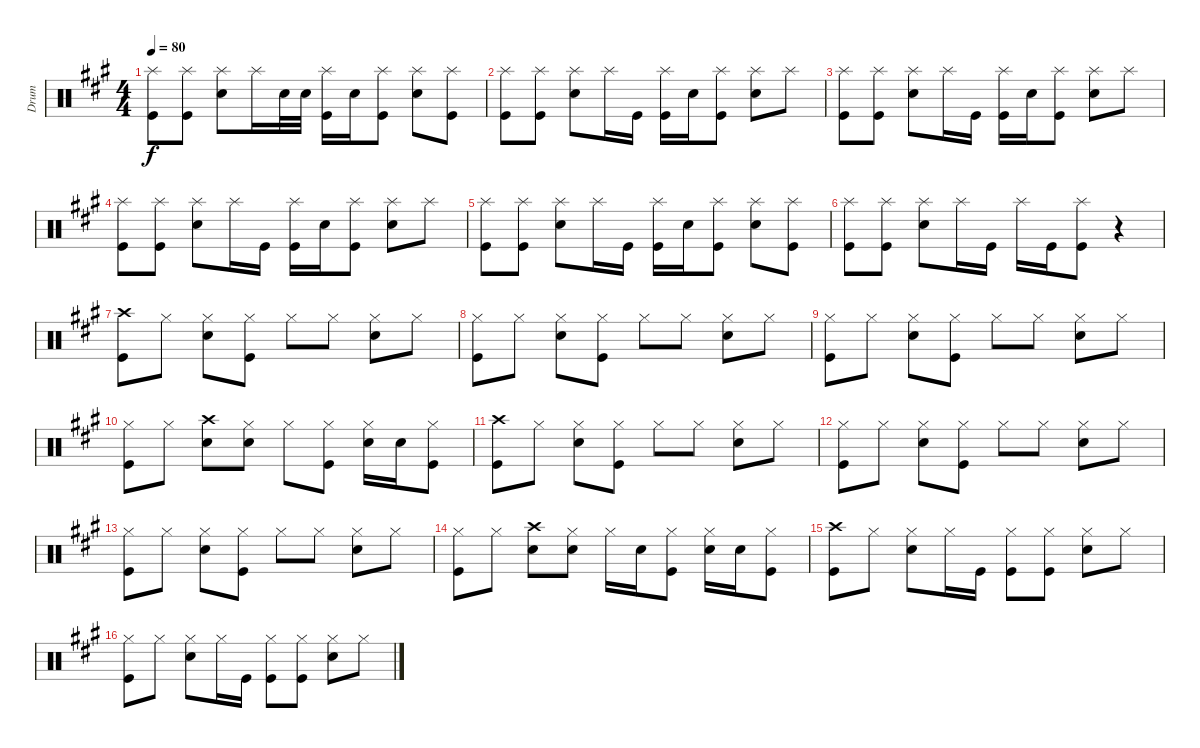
\track ("Drum" "Drum") {instrument percussion}
\staff {score}
\articulation defaults
\ts (4 4)
\tempo 80
\clef neutral
\ks a
("Splash (hit)" "Kick (hit)").8{dy f} ("Splash (hit)" "Kick (hit)").8 ("Splash (hit)" "Electric Snare (hit)").8 "Splash (hit)".16 "Electric Snare (hit)".32 "Electric Snare (hit)".32 ("Splash (hit)" "Kick (hit)").16 "Electric Snare (hit)".16 ("Splash (hit)" "Kick (hit)").8 ("Splash (hit)" "Electric Snare (hit)").8 ("Splash (hit)" "Kick (hit)").8 |
("Splash (hit)" "Kick (hit)").8 ("Splash (hit)" "Kick (hit)").8 ("Splash (hit)" "Electric Snare (hit)").8 "Splash (hit)".16 "Kick (hit)".16 ("Splash (hit)" "Kick (hit)").16 "Electric Snare (hit)".16 ("Splash (hit)" "Kick (hit)").8 ("Splash (hit)" "Electric Snare (hit)").8 "Splash (hit)".8 |
("Splash (hit)" "Kick (hit)").8 ("Splash (hit)" "Kick (hit)").8 ("Splash (hit)" "Electric Snare (hit)").8 "Splash (hit)".16 "Kick (hit)".16 ("Splash (hit)" "Kick (hit)").16 "Electric Snare (hit)".16 ("Splash (hit)" "Kick (hit)").8 ("Splash (hit)" "Electric Snare (hit)").8 "Splash (hit)".8 |
("Splash (hit)" "Kick (hit)").8 ("Splash (hit)" "Kick (hit)").8 ("Splash (hit)" "Electric Snare (hit)").8 "Splash (hit)".16 "Kick (hit)".16 ("Splash (hit)" "Kick (hit)").16 "Electric Snare (hit)".16 ("Splash (hit)" "Kick (hit)").8 ("Splash (hit)" "Electric Snare (hit)").8 "Splash (hit)".8 |
("Splash (hit)" "Kick (hit)").8 ("Splash (hit)" "Kick (hit)").8 ("Splash (hit)" "Electric Snare (hit)").8 "Splash (hit)".16 "Kick (hit)".16 ("Splash (hit)" "Kick (hit)").16 "Electric Snare (hit)".16 ("Splash (hit)" "Kick (hit)").8 ("Splash (hit)" "Electric Snare (hit)").8 ("Splash (hit)" "Kick (hit)").8 |
("Splash (hit)" "Kick (hit)").8 ("Splash (hit)" "Kick (hit)").8 ("Splash (hit)" "Electric Snare (hit)").8 "Splash (hit)".16 "Kick (hit)".16 "Splash (hit)".16 "Kick (hit)".16 ("Splash (hit)" "Kick (hit)").8 r.4 |
("Crash high (hit)" "Kick (hit)").8 "Hi-Hat (closed)".8 ("Hi-Hat (closed)" "Snare (hit) 2").8 ("Hi-Hat (closed)" "Kick (hit)").8 "Hi-Hat (closed)".8 "Hi-Hat (closed)".8 ("Hi-Hat (closed)" "Snare (hit) 2").8 "Hi-Hat (closed)".8 |
("Hi-Hat (closed)" "Kick (hit)").8 "Hi-Hat (closed)".8 ("Hi-Hat (closed)" "Snare (hit) 2").8 ("Hi-Hat (closed)" "Kick (hit)").8 "Hi-Hat (closed)".8 "Hi-Hat (closed)".8 ("Hi-Hat (closed)" "Snare (hit) 2").8 "Hi-Hat (closed)".8 |
("Hi-Hat (closed)" "Kick (hit)").8 "Hi-Hat (closed)".8 ("Hi-Hat (closed)" "Snare (hit) 2").8 ("Hi-Hat (closed)" "Kick (hit)").8 "Hi-Hat (closed)".8 "Hi-Hat (closed)".8 ("Hi-Hat (closed)" "Snare (hit) 2").8 "Hi-Hat (closed)".8 |
("Hi-Hat (closed)" "Kick (hit)").8 "Hi-Hat (closed)".8 ("Crash high (hit)" "Snare (hit) 2").8 ("Hi-Hat (closed)" "Electric Snare (hit)").8 "Hi-Hat (closed)".8 ("Hi-Hat (closed)" "Kick (hit)").8 ("Hi-Hat (closed)" "Electric Snare (hit)").16 "Electric Snare (hit)".16 ("Hi-Hat (closed)" "Kick (hit)").8 |
("Crash high (hit)" "Kick (hit)").8 "Hi-Hat (closed)".8 ("Hi-Hat (closed)" "Snare (hit) 2").8 ("Hi-Hat (closed)" "Kick (hit)").8 "Hi-Hat (closed)".8 "Hi-Hat (closed)".8 ("Hi-Hat (closed)" "Snare (hit) 2").8 "Hi-Hat (closed)".8 |
("Hi-Hat (closed)" "Kick (hit)").8 "Hi-Hat (closed)".8 ("Hi-Hat (closed)" "Snare (hit) 2").8 ("Hi-Hat (closed)" "Kick (hit)").8 "Hi-Hat (closed)".8 "Hi-Hat (closed)".8 ("Hi-Hat (closed)" "Snare (hit) 2").8 "Hi-Hat (closed)".8 |
("Hi-Hat (closed)" "Kick (hit)").8 "Hi-Hat (closed)".8 ("Hi-Hat (closed)" "Snare (hit) 2").8 ("Hi-Hat (closed)" "Kick (hit)").8 "Hi-Hat (closed)".8 "Hi-Hat (closed)".8 ("Hi-Hat (closed)" "Snare (hit) 2").8 "Hi-Hat (closed)".8 |
("Hi-Hat (closed)" "Kick (hit)").8 "Hi-Hat (closed)".8 ("Crash high (hit)" "Snare (hit) 2").8 ("Hi-Hat (closed)" "Electric Snare (hit)").8 "Hi-Hat (closed)".16 "Electric Snare (hit)".16 ("Hi-Hat (closed)" "Kick (hit)").8 ("Hi-Hat (closed)" "Electric Snare (hit)").16 "Electric Snare (hit)".16 ("Hi-Hat (closed)" "Kick (hit)").8 |
("Crash high (hit)" "Kick (hit)").8 "Hi-Hat (closed)".8 ("Hi-Hat (closed)" "Electric Snare (hit)").8 "Hi-Hat (closed)".16 "Kick (hit)".16 ("Hi-Hat (closed)" "Kick (hit)").8 ("Hi-Hat (closed)" "Kick (hit)").8 ("Hi-Hat (closed)" "Electric Snare (hit)").8 "Hi-Hat (closed)".8 |
("Hi-Hat (closed)" "Kick (hit)").8 "Hi-Hat (closed)".8 ("Hi-Hat (closed)" "Electric Snare (hit)").8 "Hi-Hat (closed)".16 "Kick (hit)".16 ("Hi-Hat (closed)" "Kick (hit)").8 ("Hi-Hat (closed)" "Kick (hit)").8 ("Hi-Hat (closed)" "Electric Snare (hit)").8 "Hi-Hat (closed)".8
